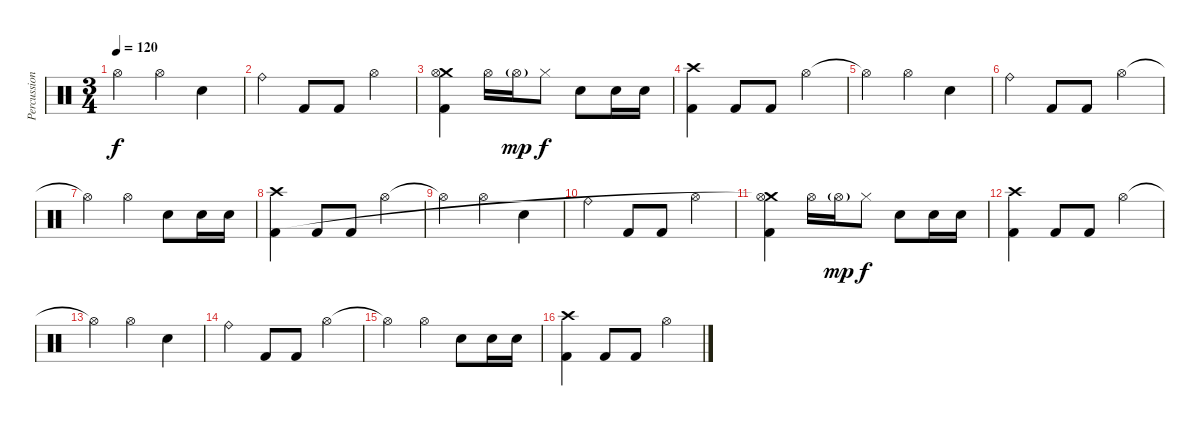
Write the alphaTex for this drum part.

\track ("Percussion" "Percussion") {instrument percussion}
\staff {score}
\articulation defaults
\ts (3 4)
\tempo 120
\clef neutral
\ks c "Hi-Hat (open)"{t}.4{dy f} "Hi-Hat (open)".4 "Electric Snare (hit)".4
|
"Ride (bell)".4 "Kick (hit) 2".8 "Kick (hit) 2".8 "Hi-Hat (open)".4 |
("Crash medium (hit)" "Hi-Hat (open)"{t} "Kick (hit) 2").4 "Hi-Hat (open)".16 "Hi-Hat (open)"{g}.16{dy mp} "Hi-Hat (closed)".8{dy f} "Electric Snare (hit)".8 "Electric Snare (hit)".16 "Electric Snare (hit)".16 |
("Crash high (hit)" "Kick (hit) 2").4 "Kick (hit) 2".8 "Kick (hit) 2".8 "Hi-Hat (open)".4 |
"Hi-Hat (open)"{t}.4 "Hi-Hat (open)".4 "Electric Snare (hit)".4 |
"Ride (bell)".4 "Kick (hit) 2".8 "Kick (hit) 2".8 "Hi-Hat (open)".4 |
"Hi-Hat (open)"{t}.4 "Hi-Hat (open)".4 "Electric Snare (hit)".8 "Electric Snare (hit)".16 "Electric Snare (hit)".16 |
("Crash high (hit)" "Kick (hit) 2").4 "Kick (hit) 2".8 "Kick (hit) 2".8 "Hi-Hat (open)".4 |
"Hi-Hat (open)"{t}.4 "Hi-Hat (open)".4 "Electric Snare (hit)".4 |
"Ride (bell)".4 "Kick (hit) 2".8 "Kick (hit) 2".8 "Hi-Hat (open)".4 |
("Crash medium (hit)" "Hi-Hat (open)"{t} "Kick (hit) 2").4 "Hi-Hat (open)".16 "Hi-Hat (open)"{g}.16{dy mp} "Hi-Hat (closed)".8{dy f} "Electric Snare (hit)".8 "Electric Snare (hit)".16 "Electric Snare (hit)".16 |
("Crash high (hit)" "Kick (hit) 2").4 "Kick (hit) 2".8 "Kick (hit) 2".8 "Hi-Hat (open)".4 |
"Hi-Hat (open)"{t}.4 "Hi-Hat (open)".4 "Electric Snare (hit)".4 |
"Ride (bell)".4 "Kick (hit) 2".8 "Kick (hit) 2".8 "Hi-Hat (open)".4 |
"Hi-Hat (open)"{t}.4 "Hi-Hat (open)".4 "Electric Snare (hit)".8 "Electric Snare (hit)".16 "Electric Snare (hit)".16 |
("Crash high (hit)" "Kick (hit) 2").4 "Kick (hit) 2".8 "Kick (hit) 2".8 "Hi-Hat (open)".4
